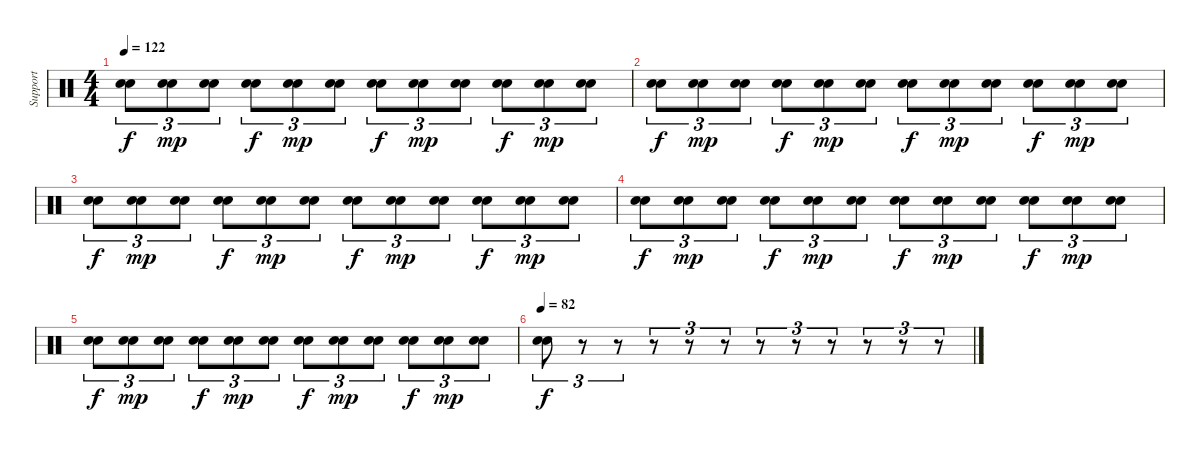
\track ("Support" "Support") {instrument percussion}
\staff {score}
\articulation defaults
\ts (4 4)
\tempo 122
\clef neutral
\ks c
("Snare (hit) 2" "Electric Snare (hit)").8{tu (3 2) dy f} ("Snare (hit) 2" "Electric Snare (hit)").8{tu (3 2) dy mp} ("Snare (hit) 2" "Electric Snare (hit)").8{tu (3 2)} ("Snare (hit) 2" "Electric Snare (hit)").8{tu (3 2) dy f} ("Snare (hit) 2" "Electric Snare (hit)").8{tu (3 2) dy mp} ("Snare (hit) 2" "Electric Snare (hit)").8{tu (3 2)} ("Snare (hit) 2" "Electric Snare (hit)").8{tu (3 2) dy f} ("Snare (hit) 2" "Electric Snare (hit)").8{tu (3 2) dy mp} ("Snare (hit) 2" "Electric Snare (hit)").8{tu (3 2)} ("Snare (hit) 2" "Electric Snare (hit)").8{tu (3 2) dy f} ("Snare (hit) 2" "Electric Snare (hit)").8{tu (3 2) dy mp} ("Snare (hit) 2" "Electric Snare (hit)").8{tu (3 2)} |
("Snare (hit) 2" "Electric Snare (hit)").8{tu (3 2) dy f} ("Snare (hit) 2" "Electric Snare (hit)").8{tu (3 2) dy mp} ("Snare (hit) 2" "Electric Snare (hit)").8{tu (3 2)} ("Snare (hit) 2" "Electric Snare (hit)").8{tu (3 2) dy f} ("Snare (hit) 2" "Electric Snare (hit)").8{tu (3 2) dy mp} ("Snare (hit) 2" "Electric Snare (hit)").8{tu (3 2)} ("Snare (hit) 2" "Electric Snare (hit)").8{tu (3 2) dy f} ("Snare (hit) 2" "Electric Snare (hit)").8{tu (3 2) dy mp} ("Snare (hit) 2" "Electric Snare (hit)").8{tu (3 2)} ("Snare (hit) 2" "Electric Snare (hit)").8{tu (3 2) dy f} ("Snare (hit) 2" "Electric Snare (hit)").8{tu (3 2) dy mp} ("Snare (hit) 2" "Electric Snare (hit)").8{tu (3 2)} |
("Snare (hit) 2" "Electric Snare (hit)").8{tu (3 2) dy f} ("Snare (hit) 2" "Electric Snare (hit)").8{tu (3 2) dy mp} ("Snare (hit) 2" "Electric Snare (hit)").8{tu (3 2)} ("Snare (hit) 2" "Electric Snare (hit)").8{tu (3 2) dy f} ("Snare (hit) 2" "Electric Snare (hit)").8{tu (3 2) dy mp} ("Snare (hit) 2" "Electric Snare (hit)").8{tu (3 2)} ("Snare (hit) 2" "Electric Snare (hit)").8{tu (3 2) dy f} ("Snare (hit) 2" "Electric Snare (hit)").8{tu (3 2) dy mp} ("Snare (hit) 2" "Electric Snare (hit)").8{tu (3 2)} ("Snare (hit) 2" "Electric Snare (hit)").8{tu (3 2) dy f} ("Snare (hit) 2" "Electric Snare (hit)").8{tu (3 2) dy mp} ("Snare (hit) 2" "Electric Snare (hit)").8{tu (3 2)} |
("Snare (hit) 2" "Electric Snare (hit)").8{tu (3 2) dy f} ("Snare (hit) 2" "Electric Snare (hit)").8{tu (3 2) dy mp} ("Snare (hit) 2" "Electric Snare (hit)").8{tu (3 2)} ("Snare (hit) 2" "Electric Snare (hit)").8{tu (3 2) dy f} ("Snare (hit) 2" "Electric Snare (hit)").8{tu (3 2) dy mp} ("Snare (hit) 2" "Electric Snare (hit)").8{tu (3 2)} ("Snare (hit) 2" "Electric Snare (hit)").8{tu (3 2) dy f} ("Snare (hit) 2" "Electric Snare (hit)").8{tu (3 2) dy mp} ("Snare (hit) 2" "Electric Snare (hit)").8{tu (3 2)} ("Snare (hit) 2" "Electric Snare (hit)").8{tu (3 2) dy f} ("Snare (hit) 2" "Electric Snare (hit)").8{tu (3 2) dy mp} ("Snare (hit) 2" "Electric Snare (hit)").8{tu (3 2)} |
("Snare (hit) 2" "Electric Snare (hit)").8{tu (3 2) dy f} ("Snare (hit) 2" "Electric Snare (hit)").8{tu (3 2) dy mp} ("Snare (hit) 2" "Electric Snare (hit)").8{tu (3 2)} ("Snare (hit) 2" "Electric Snare (hit)").8{tu (3 2) dy f} ("Snare (hit) 2" "Electric Snare (hit)").8{tu (3 2) dy mp} ("Snare (hit) 2" "Electric Snare (hit)").8{tu (3 2)} ("Snare (hit) 2" "Electric Snare (hit)").8{tu (3 2) dy f} ("Snare (hit) 2" "Electric Snare (hit)").8{tu (3 2) dy mp} ("Snare (hit) 2" "Electric Snare (hit)").8{tu (3 2)} ("Snare (hit) 2" "Electric Snare (hit)").8{tu (3 2) dy f} ("Snare (hit) 2" "Electric Snare (hit)").8{tu (3 2) dy mp} ("Snare (hit) 2" "Electric Snare (hit)").8{tu (3 2)} |
\tempo 82
("Snare (hit) 2" "Electric Snare (hit)").8{tu (3 2) dy f} r.8{tu (3 2)} r.8{tu (3 2)} r.8{tu (3 2)} r.8{tu (3 2)} r.8{tu (3 2)} r.8{tu (3 2)} r.8{tu (3 2)} r.8{tu (3 2)} r.8{tu (3 2)} r.8{tu (3 2)} r.8{tu (3 2)}
